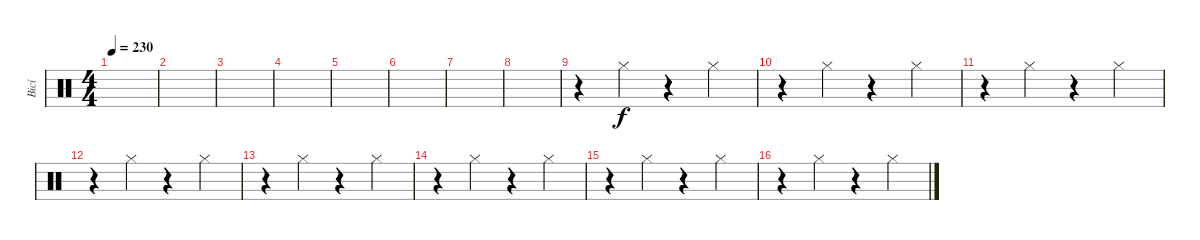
\track ("Bicí" "Bicí") {instrument percussion}
\staff {score}
\articulation defaults
\ts (4 4)
\tempo 230
\clef neutral
\ks c
|
|
|
|
|
|
|
|
r.4 "Hi-Hat (closed)".4 r.4 "Hi-Hat (closed)".4 |
r.4 "Hi-Hat (closed)".4 r.4 "Hi-Hat (closed)".4 |
r.4 "Hi-Hat (closed)".4 r.4 "Hi-Hat (closed)".4 |
r.4 "Hi-Hat (closed)".4 r.4 "Hi-Hat (closed)".4 |
r.4 "Hi-Hat (closed)".4 r.4 "Hi-Hat (closed)".4 |
r.4 "Hi-Hat (closed)".4 r.4 "Hi-Hat (closed)".4 |
r.4 "Hi-Hat (closed)".4 r.4 "Hi-Hat (closed)".4 |
r.4 "Hi-Hat (closed)".4 r.4 "Hi-Hat (closed)".4
